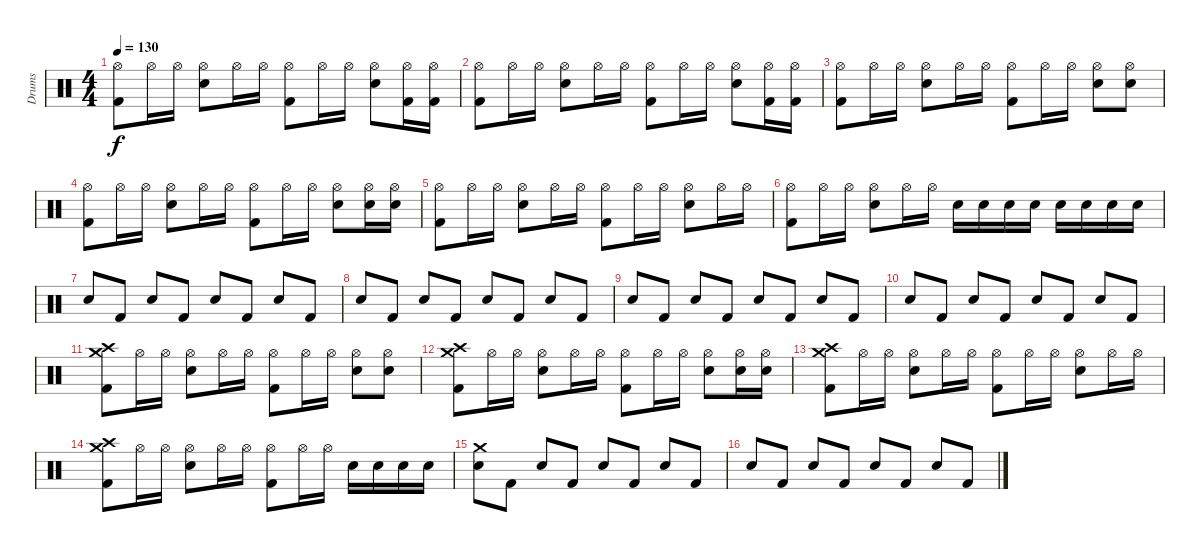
\track ("Drums" "Drums") {instrument percussion}
\staff {score}
\articulation defaults
\ts (4 4)
\tempo 130
\clef neutral
\ks c
("Hi-Hat (open)" "Kick (hit) 2").8{dy f} "Hi-Hat (open)".16 "Hi-Hat (open)".16 ("Hi-Hat (open)" "Snare (hit) 2").8 "Hi-Hat (open)".16 "Hi-Hat (open)".16 ("Hi-Hat (open)" "Kick (hit) 2").8 "Hi-Hat (open)".16 "Hi-Hat (open)".16 ("Hi-Hat (open)" "Snare (hit) 2").8 ("Hi-Hat (open)" "Kick (hit) 2").16 ("Hi-Hat (open)" "Kick (hit) 2").16 |
("Hi-Hat (open)" "Kick (hit) 2").8 "Hi-Hat (open)".16 "Hi-Hat (open)".16 ("Hi-Hat (open)" "Snare (hit) 2").8 "Hi-Hat (open)".16 "Hi-Hat (open)".16 ("Hi-Hat (open)" "Kick (hit) 2").8 "Hi-Hat (open)".16 "Hi-Hat (open)".16 ("Hi-Hat (open)" "Snare (hit) 2").8 ("Hi-Hat (open)" "Kick (hit) 2").16 ("Hi-Hat (open)" "Kick (hit) 2").16 |
("Hi-Hat (open)" "Kick (hit) 2").8 "Hi-Hat (open)".16 "Hi-Hat (open)".16 ("Hi-Hat (open)" "Snare (hit) 2").8 "Hi-Hat (open)".16 "Hi-Hat (open)".16 ("Hi-Hat (open)" "Kick (hit) 2").8 "Hi-Hat (open)".16 "Hi-Hat (open)".16 ("Hi-Hat (open)" "Snare (hit) 2").8 ("Hi-Hat (open)" "Snare (hit) 2").8 |
("Hi-Hat (open)" "Kick (hit) 2").8 "Hi-Hat (open)".16 "Hi-Hat (open)".16 ("Hi-Hat (open)" "Snare (hit) 2").8 "Hi-Hat (open)".16 "Hi-Hat (open)".16 ("Hi-Hat (open)" "Kick (hit) 2").8 "Hi-Hat (open)".16 "Hi-Hat (open)".16 ("Hi-Hat (open)" "Snare (hit) 2").8 ("Hi-Hat (open)" "Snare (hit) 2").16 ("Hi-Hat (open)" "Snare (hit) 2").16 |
("Hi-Hat (open)" "Kick (hit) 2").8 "Hi-Hat (open)".16 "Hi-Hat (open)".16 ("Hi-Hat (open)" "Snare (hit) 2").8 "Hi-Hat (open)".16 "Hi-Hat (open)".16 ("Hi-Hat (open)" "Kick (hit) 2").8 "Hi-Hat (open)".16 "Hi-Hat (open)".16 ("Hi-Hat (open)" "Snare (hit) 2").8 "Hi-Hat (open)".16 "Hi-Hat (open)".16 |
("Hi-Hat (open)" "Kick (hit) 2").8 "Hi-Hat (open)".16 "Hi-Hat (open)".16 ("Hi-Hat (open)" "Snare (hit) 2").8 "Hi-Hat (open)".16 "Hi-Hat (open)".16 "Snare (hit) 2".16 "Snare (hit) 2".16 "Snare (hit) 2".16 "Snare (hit) 2".16 "Snare (hit) 2".16 "Snare (hit) 2".16 "Snare (hit) 2".16 "Snare (hit) 2".16 |
"Snare (hit) 2".8 "Kick (hit) 2".8 "Snare (hit) 2".8 "Kick (hit) 2".8 "Snare (hit) 2".8 "Kick (hit) 2".8 "Snare (hit) 2".8 "Kick (hit) 2".8 |
"Snare (hit) 2".8 "Kick (hit) 2".8 "Snare (hit) 2".8 "Kick (hit) 2".8 "Snare (hit) 2".8 "Kick (hit) 2".8 "Snare (hit) 2".8 "Kick (hit) 2".8 |
"Snare (hit) 2".8 "Kick (hit) 2".8 "Snare (hit) 2".8 "Kick (hit) 2".8 "Snare (hit) 2".8 "Kick (hit) 2".8 "Snare (hit) 2".8 "Kick (hit) 2".8 |
"Snare (hit) 2".8 "Kick (hit) 2".8 "Snare (hit) 2".8 "Kick (hit) 2".8 "Snare (hit) 2".8 "Kick (hit) 2".8 "Snare (hit) 2".8 "Kick (hit) 2".8 |
("Crash medium (hit)" "Crash high (hit)" "Kick (hit) 2").8 "Hi-Hat (open)".16 "Hi-Hat (open)".16 ("Hi-Hat (open)" "Snare (hit) 2").8 "Hi-Hat (open)".16 "Hi-Hat (open)".16 ("Hi-Hat (open)" "Kick (hit) 2").8 "Hi-Hat (open)".16 "Hi-Hat (open)".16 ("Hi-Hat (open)" "Snare (hit) 2").8 ("Hi-Hat (open)" "Snare (hit) 2").8 |
("Crash medium (hit)" "Crash high (hit)" "Kick (hit) 2").8 "Hi-Hat (open)".16 "Hi-Hat (open)".16 ("Hi-Hat (open)" "Snare (hit) 2").8 "Hi-Hat (open)".16 "Hi-Hat (open)".16 ("Hi-Hat (open)" "Kick (hit) 2").8 "Hi-Hat (open)".16 "Hi-Hat (open)".16 ("Hi-Hat (open)" "Snare (hit) 2").8 ("Hi-Hat (open)" "Snare (hit) 2").16 ("Hi-Hat (open)" "Snare (hit) 2").16 |
("Crash medium (hit)" "Crash high (hit)" "Kick (hit) 2").8 "Hi-Hat (open)".16 "Hi-Hat (open)".16 ("Hi-Hat (open)" "Snare (hit) 2").8 "Hi-Hat (open)".16 "Hi-Hat (open)".16 ("Hi-Hat (open)" "Kick (hit) 2").8 "Hi-Hat (open)".16 "Hi-Hat (open)".16 ("Hi-Hat (open)" "Snare (hit) 2").8 "Hi-Hat (open)".16 "Hi-Hat (open)".16 |
("Crash medium (hit)" "Crash high (hit)" "Kick (hit) 2").8 "Hi-Hat (open)".16 "Hi-Hat (open)".16 ("Hi-Hat (open)" "Snare (hit) 2").8 "Hi-Hat (open)".16 "Hi-Hat (open)".16 ("Hi-Hat (open)" "Kick (hit) 2").8 "Hi-Hat (open)".16 "Hi-Hat (open)".16 "Snare (hit) 2".16 "Snare (hit) 2".16 "Snare (hit) 2".16 "Snare (hit) 2".16 |
("Crash medium (hit)" "Snare (hit) 2").8 "Kick (hit) 2".8 "Snare (hit) 2".8 "Kick (hit) 2".8 "Snare (hit) 2".8 "Kick (hit) 2".8 "Snare (hit) 2".8 "Kick (hit) 2".8 |
"Snare (hit) 2".8 "Kick (hit) 2".8 "Snare (hit) 2".8 "Kick (hit) 2".8 "Snare (hit) 2".8 "Kick (hit) 2".8 "Snare (hit) 2".8 "Kick (hit) 2".8
